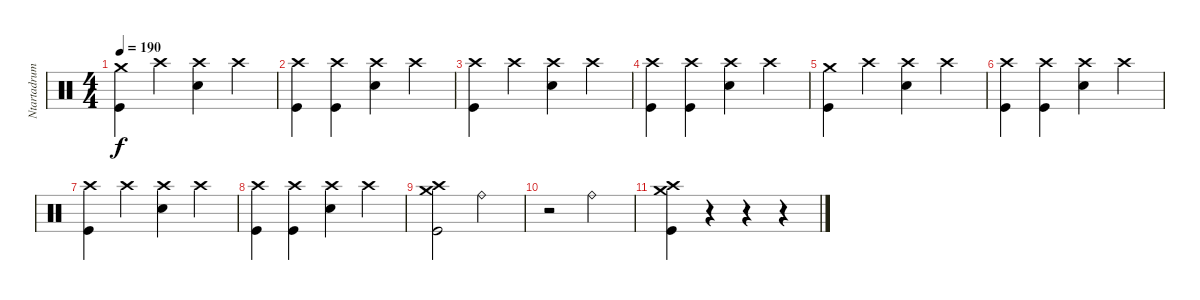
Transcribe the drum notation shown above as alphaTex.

\track ("Ntartadrum" "Ntartadrum") {instrument percussion}
\staff {score}
\articulation defaults
\ts (4 4)
\tempo 190
\clef neutral
\ks c
("Kick (hit)" "Crash medium (hit)").4{dy f} "Crash high (hit)".4 ("Electric Snare (hit)" "Crash high (hit)").4 "Crash high (hit)".4 |
("Kick (hit)" "Crash high (hit)").4 ("Kick (hit)" "Crash high (hit)").4 ("Electric Snare (hit)" "Crash high (hit)").4 "Crash high (hit)".4 |
("Kick (hit)" "Crash high (hit)").4 "Crash high (hit)".4 ("Electric Snare (hit)" "Crash high (hit)").4 "Crash high (hit)".4 |
("Kick (hit)" "Crash high (hit)").4 ("Kick (hit)" "Crash high (hit)").4 ("Electric Snare (hit)" "Crash high (hit)").4 "Crash high (hit)".4 |
("Kick (hit)" "Crash medium (hit)").4 "Crash high (hit)".4 ("Electric Snare (hit)" "Crash high (hit)").4 "Crash high (hit)".4 |
("Kick (hit)" "Crash high (hit)").4 ("Kick (hit)" "Crash high (hit)").4 ("Electric Snare (hit)" "Crash high (hit)").4 "Crash high (hit)".4 |
("Kick (hit)" "Crash high (hit)").4 "Crash high (hit)".4 ("Electric Snare (hit)" "Crash high (hit)").4 "Crash high (hit)".4 |
("Kick (hit)" "Crash high (hit)").4 ("Kick (hit)" "Crash high (hit)").4 ("Electric Snare (hit)" "Crash high (hit)").4 "Crash high (hit)".4 |
("Kick (hit)" "Crash medium (hit)" "Crash high (hit)").2 "Ride (bell)".2 |
r.2 "Ride (bell)".2 |
("Kick (hit)" "Crash medium (hit)" "Crash high (hit)").4 r.4 r.4 r.4
